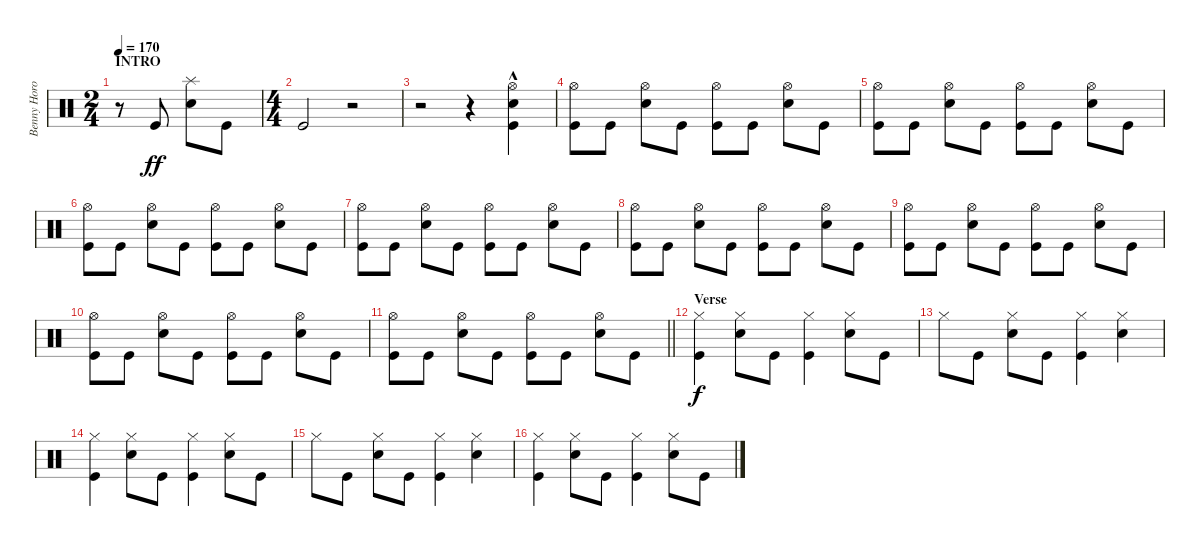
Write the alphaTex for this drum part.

\track ("Benny Horowitz" "Benny Horo") {instrument percussion}
\staff {score}
\articulation defaults
\ts (2 4)
\section ("" "INTRO")
\tempo 170
\clef neutral
\ks c
r.8{dy ff} "Kick (hit)".8 ("Splash (hit)" "Snare (hit) 2").8 "Kick (hit)".8 |
\ts (4 4)
"Kick (hit)".2 r.2 |
r.2 r.4 ("Snare (hit) 2"{hac} "Kick (hit)"{hac} "Hi-Hat (open)").4 |
("Kick (hit)" "Hi-Hat (open)").8 "Kick (hit)".8 ("Snare (hit) 2" "Hi-Hat (open)").8 "Kick (hit)".8 ("Kick (hit)" "Hi-Hat (open)").8 "Kick (hit)".8 ("Snare (hit) 2" "Hi-Hat (open)").8 "Kick (hit)".8 |
("Kick (hit)" "Hi-Hat (open)").8 "Kick (hit)".8 ("Snare (hit) 2" "Hi-Hat (open)").8 "Kick (hit)".8 ("Kick (hit)" "Hi-Hat (open)").8 "Kick (hit)".8 ("Snare (hit) 2" "Hi-Hat (open)").8 "Kick (hit)".8 |
("Kick (hit)" "Hi-Hat (open)").8 "Kick (hit)".8 ("Snare (hit) 2" "Hi-Hat (open)").8 "Kick (hit)".8 ("Kick (hit)" "Hi-Hat (open)").8 "Kick (hit)".8 ("Snare (hit) 2" "Hi-Hat (open)").8 "Kick (hit)".8 |
("Kick (hit)" "Hi-Hat (open)").8 "Kick (hit)".8 ("Snare (hit) 2" "Hi-Hat (open)").8 "Kick (hit)".8 ("Kick (hit)" "Hi-Hat (open)").8 "Kick (hit)".8 ("Snare (hit) 2" "Hi-Hat (open)").8 "Kick (hit)".8 |
("Kick (hit)" "Hi-Hat (open)").8 "Kick (hit)".8 ("Snare (hit) 2" "Hi-Hat (open)").8 "Kick (hit)".8 ("Kick (hit)" "Hi-Hat (open)").8 "Kick (hit)".8 ("Snare (hit) 2" "Hi-Hat (open)").8 "Kick (hit)".8 |
("Kick (hit)" "Hi-Hat (open)").8 "Kick (hit)".8 ("Snare (hit) 2" "Hi-Hat (open)").8 "Kick (hit)".8 ("Kick (hit)" "Hi-Hat (open)").8 "Kick (hit)".8 ("Snare (hit) 2" "Hi-Hat (open)").8 "Kick (hit)".8 |
("Kick (hit)" "Hi-Hat (open)").8 "Kick (hit)".8 ("Snare (hit) 2" "Hi-Hat (open)").8 "Kick (hit)".8 ("Kick (hit)" "Hi-Hat (open)").8 "Kick (hit)".8 ("Snare (hit) 2" "Hi-Hat (open)").8 "Kick (hit)".8 |
\barLineRight lightlight
("Kick (hit)" "Hi-Hat (open)").8 "Kick (hit)".8 ("Snare (hit) 2" "Hi-Hat (open)").8 "Kick (hit)".8 ("Kick (hit)" "Hi-Hat (open)").8 "Kick (hit)".8 ("Snare (hit) 2" "Hi-Hat (open)").8 "Kick (hit)".8 |
\section ("" "Verse")
("Kick (hit)" "Hi-Hat (closed)").4{dy f} ("Snare (hit) 2" "Hi-Hat (closed)").8 "Kick (hit)".8 ("Kick (hit)" "Hi-Hat (closed)").4 ("Snare (hit) 2" "Hi-Hat (closed)").8 "Kick (hit)".8 |
"Hi-Hat (closed)".8 "Kick (hit)".8 ("Snare (hit) 2" "Hi-Hat (closed)").8 "Kick (hit)".8 ("Kick (hit)" "Hi-Hat (closed)").4 ("Snare (hit) 2" "Hi-Hat (closed)").4 |
("Kick (hit)" "Hi-Hat (closed)").4 ("Snare (hit) 2" "Hi-Hat (closed)").8 "Kick (hit)".8 ("Kick (hit)" "Hi-Hat (closed)").4 ("Snare (hit) 2" "Hi-Hat (closed)").8 "Kick (hit)".8 |
"Hi-Hat (closed)".8 "Kick (hit)".8 ("Snare (hit) 2" "Hi-Hat (closed)").8 "Kick (hit)".8 ("Kick (hit)" "Hi-Hat (closed)").4 ("Snare (hit) 2" "Hi-Hat (closed)").4 |
("Kick (hit)" "Hi-Hat (closed)").4 ("Snare (hit) 2" "Hi-Hat (closed)").8 "Kick (hit)".8 ("Kick (hit)" "Hi-Hat (closed)").4 ("Snare (hit) 2" "Hi-Hat (closed)").8 "Kick (hit)".8
